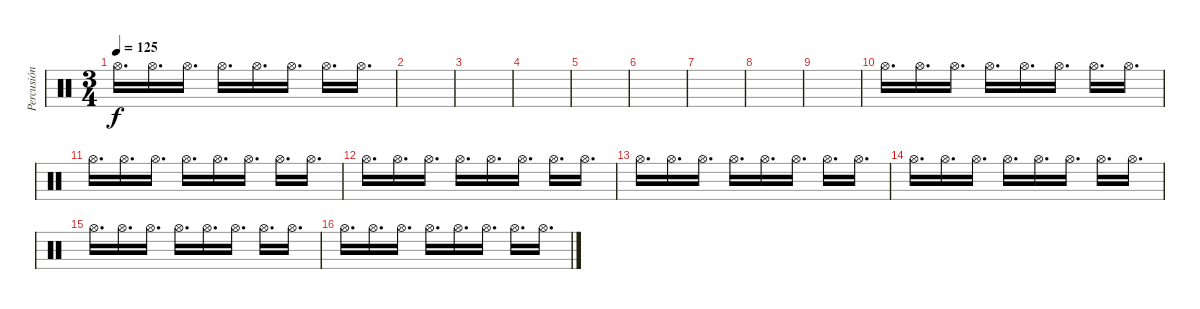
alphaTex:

\track ("Percusión" "Percusión") {instrument percussion}
\staff {score}
\articulation defaults
\ts (3 4)
\tempo 125
\clef neutral
\ks c "Hi-Hat (open)".16{d dy f} "Hi-Hat (open)".16{d} "Hi-Hat (open)".16{d} "Hi-Hat (open)".16{d} "Hi-Hat (open)".16{d} "Hi-Hat (open)".16{d} "Hi-Hat (open)".16{d} "Hi-Hat (open)".16{d}
|
|
|
|
|
|
|
|
|
"Hi-Hat (open)".16{d volume 11} "Hi-Hat (open)".16{d} "Hi-Hat (open)".16{d} "Hi-Hat (open)".16{d} "Hi-Hat (open)".16{d} "Hi-Hat (open)".16{d} "Hi-Hat (open)".16{d} "Hi-Hat (open)".16{d} |
"Hi-Hat (open)".16{d} "Hi-Hat (open)".16{d} "Hi-Hat (open)".16{d} "Hi-Hat (open)".16{d} "Hi-Hat (open)".16{d} "Hi-Hat (open)".16{d} "Hi-Hat (open)".16{d} "Hi-Hat (open)".16{d} |
"Hi-Hat (open)".16{d} "Hi-Hat (open)".16{d} "Hi-Hat (open)".16{d} "Hi-Hat (open)".16{d} "Hi-Hat (open)".16{d} "Hi-Hat (open)".16{d} "Hi-Hat (open)".16{d} "Hi-Hat (open)".16{d} |
"Hi-Hat (open)".16{d} "Hi-Hat (open)".16{d} "Hi-Hat (open)".16{d} "Hi-Hat (open)".16{d} "Hi-Hat (open)".16{d} "Hi-Hat (open)".16{d} "Hi-Hat (open)".16{d} "Hi-Hat (open)".16{d} |
"Hi-Hat (open)".16{d} "Hi-Hat (open)".16{d} "Hi-Hat (open)".16{d} "Hi-Hat (open)".16{d} "Hi-Hat (open)".16{d} "Hi-Hat (open)".16{d} "Hi-Hat (open)".16{d} "Hi-Hat (open)".16{d} |
"Hi-Hat (open)".16{d} "Hi-Hat (open)".16{d} "Hi-Hat (open)".16{d} "Hi-Hat (open)".16{d} "Hi-Hat (open)".16{d} "Hi-Hat (open)".16{d} "Hi-Hat (open)".16{d} "Hi-Hat (open)".16{d} |
"Hi-Hat (open)".16{d} "Hi-Hat (open)".16{d} "Hi-Hat (open)".16{d} "Hi-Hat (open)".16{d} "Hi-Hat (open)".16{d} "Hi-Hat (open)".16{d} "Hi-Hat (open)".16{d} "Hi-Hat (open)".16{d}
